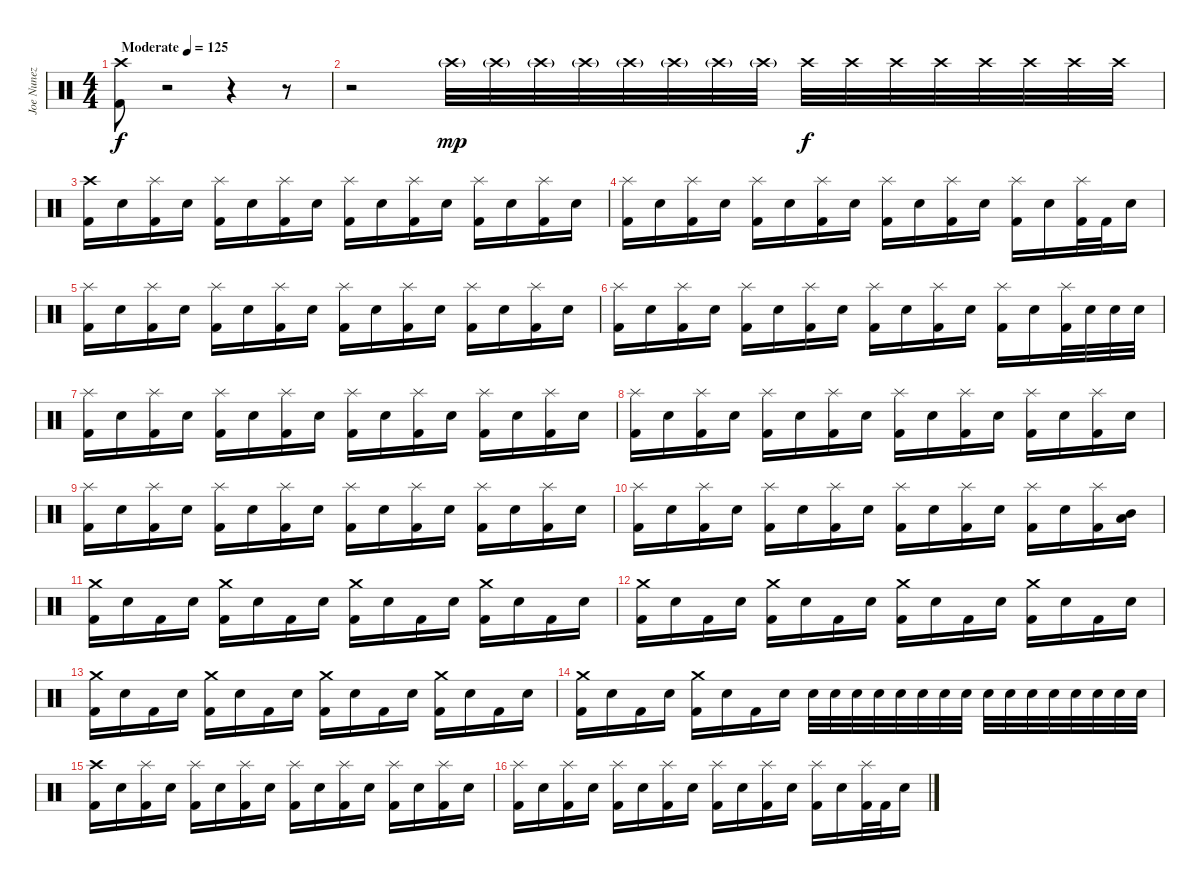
\track ("Joe Nunez" "Joe Nunez") {instrument percussion}
\staff {score}
\articulation defaults
\ts (4 4)
\tempo (125 "Moderate")
\clef neutral
\ks c
("Crash high (hit)" "Kick (hit) 2").8{dy f} r.2 r.4 r.8 |
r.2 "Crash high (hit)"{g}.32{dy mp} "Crash high (hit)"{g}.32 "Crash high (hit)"{g}.32 "Crash high (hit)"{g}.32 "Crash high (hit)"{g}.32 "Crash high (hit)"{g}.32 "Crash high (hit)"{g}.32 "Crash high (hit)"{g}.32 "Crash high (hit)".32{dy f} "Crash high (hit)".32 "Crash high (hit)".32 "Crash high (hit)".32 "Crash high (hit)".32 "Crash high (hit)".32 "Crash high (hit)".32 "Crash high (hit)".32 |
("Crash high (hit)" "Kick (hit) 2").16 "Snare (hit) 2".16 ("Splash (hit)" "Kick (hit) 2").16 "Snare (hit) 2".16 ("Splash (hit)" "Kick (hit) 2").16 "Snare (hit) 2".16 ("Splash (hit)" "Kick (hit) 2").16 "Snare (hit) 2".16 ("Splash (hit)" "Kick (hit) 2").16 "Snare (hit) 2".16 ("Splash (hit)" "Kick (hit) 2").16 "Snare (hit) 2".16 ("Splash (hit)" "Kick (hit) 2").16 "Snare (hit) 2".16 ("Splash (hit)" "Kick (hit) 2").16 "Snare (hit) 2".16 |
("Splash (hit)" "Kick (hit) 2").16 "Snare (hit) 2".16 ("Splash (hit)" "Kick (hit) 2").16 "Snare (hit) 2".16 ("Splash (hit)" "Kick (hit) 2").16 "Snare (hit) 2".16 ("Splash (hit)" "Kick (hit) 2").16 "Snare (hit) 2".16 ("Splash (hit)" "Kick (hit) 2").16 "Snare (hit) 2".16 ("Splash (hit)" "Kick (hit) 2").16 "Snare (hit) 2".16 ("Splash (hit)" "Kick (hit) 2").16 "Snare (hit) 2".16 ("Splash (hit)" "Kick (hit) 2").32 "Kick (hit) 2".32 "Snare (hit) 2".16 |
("Splash (hit)" "Kick (hit) 2").16 "Snare (hit) 2".16 ("Splash (hit)" "Kick (hit) 2").16 "Snare (hit) 2".16 ("Splash (hit)" "Kick (hit) 2").16 "Snare (hit) 2".16 ("Splash (hit)" "Kick (hit) 2").16 "Snare (hit) 2".16 ("Splash (hit)" "Kick (hit) 2").16 "Snare (hit) 2".16 ("Splash (hit)" "Kick (hit) 2").16 "Snare (hit) 2".16 ("Splash (hit)" "Kick (hit) 2").16 "Snare (hit) 2".16 ("Splash (hit)" "Kick (hit) 2").16 "Snare (hit) 2".16 |
("Splash (hit)" "Kick (hit) 2").16 "Snare (hit) 2".16 ("Splash (hit)" "Kick (hit) 2").16 "Snare (hit) 2".16 ("Splash (hit)" "Kick (hit) 2").16 "Snare (hit) 2".16 ("Splash (hit)" "Kick (hit) 2").16 "Snare (hit) 2".16 ("Splash (hit)" "Kick (hit) 2").16 "Snare (hit) 2".16 ("Splash (hit)" "Kick (hit) 2").16 "Snare (hit) 2".16 ("Splash (hit)" "Kick (hit) 2").16 "Snare (hit) 2".16 ("Splash (hit)" "Kick (hit) 2").32 "Snare (hit) 2".32 "Snare (hit) 2".32 "Snare (hit) 2".32 |
("Splash (hit)" "Kick (hit) 2").16 "Snare (hit) 2".16 ("Splash (hit)" "Kick (hit) 2").16 "Snare (hit) 2".16 ("Splash (hit)" "Kick (hit) 2").16 "Snare (hit) 2".16 ("Splash (hit)" "Kick (hit) 2").16 "Snare (hit) 2".16 ("Splash (hit)" "Kick (hit) 2").16 "Snare (hit) 2".16 ("Splash (hit)" "Kick (hit) 2").16 "Snare (hit) 2".16 ("Splash (hit)" "Kick (hit) 2").16 "Snare (hit) 2".16 ("Splash (hit)" "Kick (hit) 2").16 "Snare (hit) 2".16 |
("Splash (hit)" "Kick (hit) 2").16 "Snare (hit) 2".16 ("Splash (hit)" "Kick (hit) 2").16 "Snare (hit) 2".16 ("Splash (hit)" "Kick (hit) 2").16 "Snare (hit) 2".16 ("Splash (hit)" "Kick (hit) 2").16 "Snare (hit) 2".16 ("Splash (hit)" "Kick (hit) 2").16 "Snare (hit) 2".16 ("Splash (hit)" "Kick (hit) 2").16 "Snare (hit) 2".16 ("Splash (hit)" "Kick (hit) 2").16 "Snare (hit) 2".16 ("Splash (hit)" "Kick (hit) 2").16 "Snare (hit) 2".16 |
("Splash (hit)" "Kick (hit) 2").16 "Snare (hit) 2".16 ("Splash (hit)" "Kick (hit) 2").16 "Snare (hit) 2".16 ("Splash (hit)" "Kick (hit) 2").16 "Snare (hit) 2".16 ("Splash (hit)" "Kick (hit) 2").16 "Snare (hit) 2".16 ("Splash (hit)" "Kick (hit) 2").16 "Snare (hit) 2".16 ("Splash (hit)" "Kick (hit) 2").16 "Snare (hit) 2".16 ("Splash (hit)" "Kick (hit) 2").16 "Snare (hit) 2".16 ("Splash (hit)" "Kick (hit) 2").16 "Snare (hit) 2".16 |
("Splash (hit)" "Kick (hit) 2").16 "Snare (hit) 2".16 ("Splash (hit)" "Kick (hit) 2").16 "Snare (hit) 2".16 ("Splash (hit)" "Kick (hit) 2").16 "Snare (hit) 2".16 ("Splash (hit)" "Kick (hit) 2").16 "Snare (hit) 2".16 ("Splash (hit)" "Kick (hit) 2").16 "Snare (hit) 2".16 ("Splash (hit)" "Kick (hit) 2").16 "Snare (hit) 2".16 ("Splash (hit)" "Kick (hit) 2").16 "Snare (hit) 2".16 ("Splash (hit)" "Kick (hit) 2").16 ("Mid Tom (hit)" "Low Tom (hit)").16 |
("Crash medium (hit)" "Kick (hit) 2").16 "Snare (hit) 2".16 "Kick (hit) 2".16 "Snare (hit) 2".16 ("Crash medium (hit)" "Kick (hit) 2").16 "Snare (hit) 2".16 "Kick (hit) 2".16 "Snare (hit) 2".16 ("Crash medium (hit)" "Kick (hit) 2").16 "Snare (hit) 2".16 "Kick (hit) 2".16 "Snare (hit) 2".16 ("Crash medium (hit)" "Kick (hit) 2").16 "Snare (hit) 2".16 "Kick (hit) 2".16 "Snare (hit) 2".16 |
("Crash medium (hit)" "Kick (hit) 2").16 "Snare (hit) 2".16 "Kick (hit) 2".16 "Snare (hit) 2".16 ("Crash medium (hit)" "Kick (hit) 2").16 "Snare (hit) 2".16 "Kick (hit) 2".16 "Snare (hit) 2".16 ("Crash medium (hit)" "Kick (hit) 2").16 "Snare (hit) 2".16 "Kick (hit) 2".16 "Snare (hit) 2".16 ("Crash medium (hit)" "Kick (hit) 2").16 "Snare (hit) 2".16 "Kick (hit) 2".16 "Snare (hit) 2".16 |
("Crash medium (hit)" "Kick (hit) 2").16 "Snare (hit) 2".16 "Kick (hit) 2".16 "Snare (hit) 2".16 ("Crash medium (hit)" "Kick (hit) 2").16 "Snare (hit) 2".16 "Kick (hit) 2".16 "Snare (hit) 2".16 ("Crash medium (hit)" "Kick (hit) 2").16 "Snare (hit) 2".16 "Kick (hit) 2".16 "Snare (hit) 2".16 ("Crash medium (hit)" "Kick (hit) 2").16 "Snare (hit) 2".16 "Kick (hit) 2".16 "Snare (hit) 2".16 |
("Crash medium (hit)" "Kick (hit) 2").16 "Snare (hit) 2".16 "Kick (hit) 2".16 "Snare (hit) 2".16 ("Crash medium (hit)" "Kick (hit) 2").16 "Snare (hit) 2".16 "Kick (hit) 2".16 "Snare (hit) 2".16 "Snare (hit) 2".32 "Snare (hit) 2".32 "Snare (hit) 2".32 "Snare (hit) 2".32 "Snare (hit) 2".32 "Snare (hit) 2".32 "Snare (hit) 2".32 "Snare (hit) 2".32 "Snare (hit) 2".32 "Snare (hit) 2".32 "Snare (hit) 2".32 "Snare (hit) 2".32 "Snare (hit) 2".32 "Snare (hit) 2".32 "Snare (hit) 2".32 "Snare (hit) 2".32 |
("Crash high (hit)" "Kick (hit) 2").16 "Snare (hit) 2".16 ("Splash (hit)" "Kick (hit) 2").16 "Snare (hit) 2".16 ("Splash (hit)" "Kick (hit) 2").16 "Snare (hit) 2".16 ("Splash (hit)" "Kick (hit) 2").16 "Snare (hit) 2".16 ("Splash (hit)" "Kick (hit) 2").16 "Snare (hit) 2".16 ("Splash (hit)" "Kick (hit) 2").16 "Snare (hit) 2".16 ("Splash (hit)" "Kick (hit) 2").16 "Snare (hit) 2".16 ("Splash (hit)" "Kick (hit) 2").16 "Snare (hit) 2".16 |
("Splash (hit)" "Kick (hit) 2").16 "Snare (hit) 2".16 ("Splash (hit)" "Kick (hit) 2").16 "Snare (hit) 2".16 ("Splash (hit)" "Kick (hit) 2").16 "Snare (hit) 2".16 ("Splash (hit)" "Kick (hit) 2").16 "Snare (hit) 2".16 ("Splash (hit)" "Kick (hit) 2").16 "Snare (hit) 2".16 ("Splash (hit)" "Kick (hit) 2").16 "Snare (hit) 2".16 ("Splash (hit)" "Kick (hit) 2").16 "Snare (hit) 2".16 ("Splash (hit)" "Kick (hit) 2").32 "Kick (hit) 2".32 "Snare (hit) 2".16
